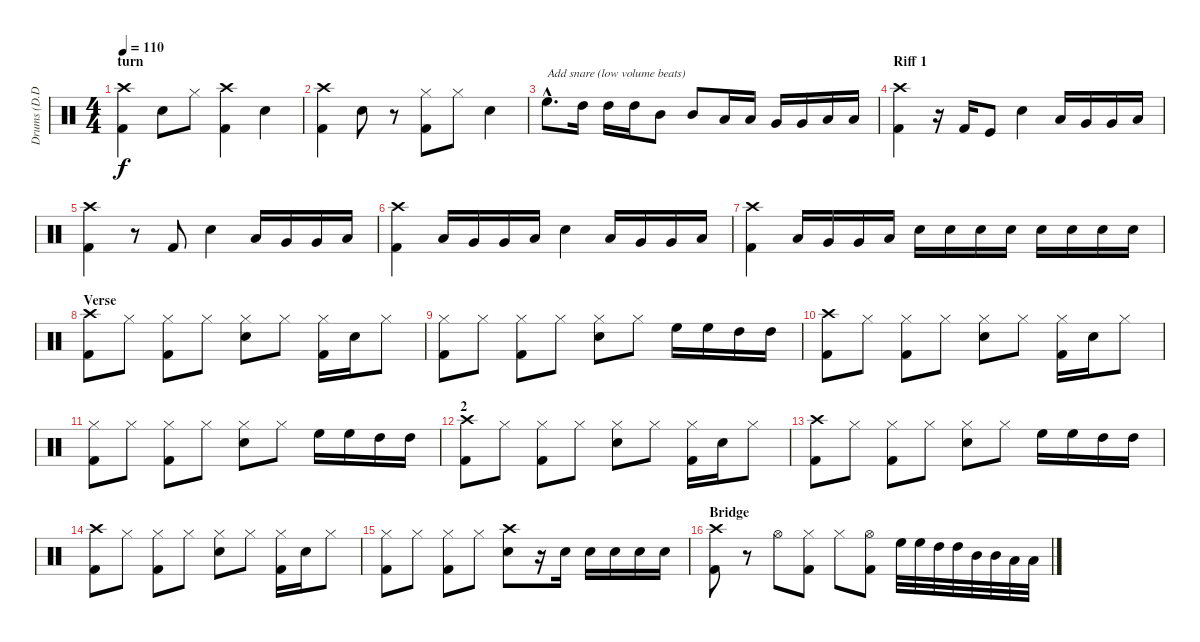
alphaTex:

\track ("Drums (D.D. Bucco)" "Drums (D.D") {instrument percussion}
\staff {score}
\articulation defaults
\ts (4 4)
\section ("" "turn")
\tempo 110
\clef neutral
\ks c
("Crash high (hit)" "Kick (hit) 2").4{dy f} "Snare (hit) 2".8 "Hi-Hat (closed)".8 ("Crash high (hit)" "Kick (hit) 2").4 "Snare (hit) 2".4 |
("Crash high (hit)" "Kick (hit) 2").4 "Snare (hit) 2".8 r.8 ("Hi-Hat (closed)" "Kick (hit) 2").8 "Hi-Hat (closed)".8 "Snare (hit) 2".4 |
\section ("" "")
"High Floor Tom (hit)"{hac}.8{d txt "Add snare (low volume beats)" volume 10} "High Tom (hit)".16 "High Tom (hit)".16 "High Tom (hit)".16 "Mid Tom (hit)".8 "Mid Tom (hit)".8 "Low Tom (hit)".16 "Low Tom (hit)".16 "Very Low Tom (hit)".16 "Very Low Tom (hit)".16 "Low Floor Tom (hit)".16 "Low Floor Tom (hit)".16 |
\section ("" "Riff 1")
("Crash high (hit)" "Kick (hit) 2").4{volume 16} r.16 "Kick (hit) 2".16 "Kick (hit)".8 "Snare (hit) 2".4 "Low Tom (hit)".16 "Very Low Tom (hit)".16 "Very Low Tom (hit)".16 "Low Floor Tom (hit)".16 |
("Crash high (hit)" "Kick (hit) 2").4 r.8 "Kick (hit) 2".8 "Snare (hit) 2".4 "Low Tom (hit)".16 "Very Low Tom (hit)".16 "Very Low Tom (hit)".16 "Low Floor Tom (hit)".16 |
("Crash high (hit)" "Kick (hit) 2").4 "Low Tom (hit)".16 "Very Low Tom (hit)".16 "Very Low Tom (hit)".16 "Low Floor Tom (hit)".16 "Snare (hit) 2".4 "Low Tom (hit)".16 "Very Low Tom (hit)".16 "Very Low Tom (hit)".16 "Low Floor Tom (hit)".16 |
("Crash high (hit)" "Kick (hit) 2").4 "Low Tom (hit)".16 "Very Low Tom (hit)".16 "Very Low Tom (hit)".16 "Low Floor Tom (hit)".16 "Snare (hit) 2".16 "Snare (hit) 2".16 "Snare (hit) 2".16 "Snare (hit) 2".16 "Snare (hit) 2".16 "Snare (hit) 2".16 "Snare (hit) 2".16 "Snare (hit) 2".16 |
\section ("" "Verse ")
("Crash high (hit)" "Kick (hit) 2").8 "Hi-Hat (closed)".8 ("Hi-Hat (closed)" "Kick (hit) 2").8 "Hi-Hat (closed)".8 ("Hi-Hat (closed)" "Snare (hit) 2").8 "Hi-Hat (closed)".8 ("Hi-Hat (closed)" "Kick (hit) 2").16 "Snare (hit) 2".16 "Hi-Hat (closed)".8 |
("Hi-Hat (closed)" "Kick (hit) 2").8 "Hi-Hat (closed)".8 ("Hi-Hat (closed)" "Kick (hit) 2").8 "Hi-Hat (closed)".8 ("Hi-Hat (closed)" "Snare (hit) 2").8 "Hi-Hat (closed)".8 "High Floor Tom (hit)".16 "High Floor Tom (hit)".16 "High Tom (hit)".16 "High Tom (hit)".16 |
("Crash high (hit)" "Kick (hit) 2").8 "Hi-Hat (closed)".8 ("Hi-Hat (closed)" "Kick (hit) 2").8 "Hi-Hat (closed)".8 ("Hi-Hat (closed)" "Snare (hit) 2").8 "Hi-Hat (closed)".8 ("Hi-Hat (closed)" "Kick (hit) 2").16 "Snare (hit) 2".16 "Hi-Hat (closed)".8 |
("Hi-Hat (closed)" "Kick (hit) 2").8 "Hi-Hat (closed)".8 ("Hi-Hat (closed)" "Kick (hit) 2").8 "Hi-Hat (closed)".8 ("Hi-Hat (closed)" "Snare (hit) 2").8 "Hi-Hat (closed)".8 "High Floor Tom (hit)".16 "High Floor Tom (hit)".16 "High Tom (hit)".16 "High Tom (hit)".16 |
\section ("" "2")
("Crash high (hit)" "Kick (hit) 2").8 "Hi-Hat (closed)".8 ("Hi-Hat (closed)" "Kick (hit) 2").8 "Hi-Hat (closed)".8 ("Hi-Hat (closed)" "Snare (hit) 2").8 "Hi-Hat (closed)".8 ("Hi-Hat (closed)" "Kick (hit) 2").16 "Snare (hit) 2".16 "Hi-Hat (closed)".8 |
("Crash high (hit)" "Kick (hit) 2").8 "Hi-Hat (closed)".8 ("Hi-Hat (closed)" "Kick (hit) 2").8 "Hi-Hat (closed)".8 ("Hi-Hat (closed)" "Snare (hit) 2").8 "Hi-Hat (closed)".8 "High Floor Tom (hit)".16 "High Floor Tom (hit)".16 "High Tom (hit)".16 "High Tom (hit)".16 |
("Crash high (hit)" "Kick (hit) 2").8 "Hi-Hat (closed)".8 ("Hi-Hat (closed)" "Kick (hit) 2").8 "Hi-Hat (closed)".8 ("Hi-Hat (closed)" "Snare (hit) 2").8 "Hi-Hat (closed)".8 ("Hi-Hat (closed)" "Kick (hit) 2").16 "Snare (hit) 2".16 "Hi-Hat (closed)".8 |
("Hi-Hat (closed)" "Kick (hit) 2").8 "Hi-Hat (closed)".8 ("Hi-Hat (closed)" "Kick (hit) 2").8 "Hi-Hat (closed)".8 ("Crash high (hit)" "Snare (hit) 2").8 r.16 "Snare (hit) 2".16 "Snare (hit) 2".16 "Snare (hit) 2".16 "Snare (hit) 2".16 "Snare (hit) 2".16 |
\section ("" "Bridge")
("Crash high (hit)" "Kick (hit) 2").8 r.8 "Hi-Hat (open)".8 ("Hi-Hat (closed)" "Kick (hit) 2").8 "Hi-Hat (closed)".8 ("Hi-Hat (open)" "Kick (hit) 2").8 "High Floor Tom (hit)".32 "High Floor Tom (hit)".32 "High Tom (hit)".32 "High Tom (hit)".32 "Mid Tom (hit)".32 "Mid Tom (hit)".32 "Low Tom (hit)".32 "Low Tom (hit)".32
